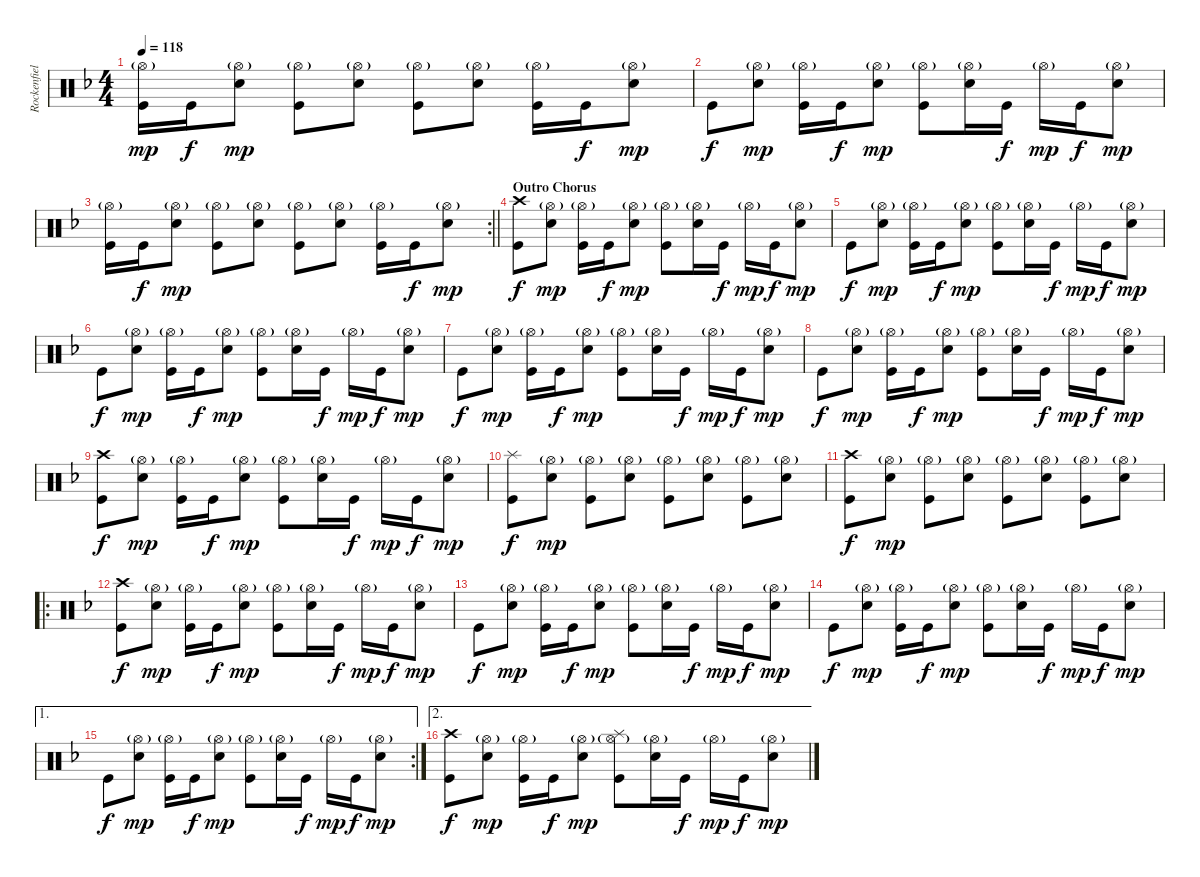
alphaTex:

\track ("Rockenfield" "Rockenfiel") {instrument percussion}
\staff {score}
\articulation defaults
\ts (4 4)
\tempo 118
\clef neutral
\ks f
("Hi-Hat (open)"{g} "Kick (hit)").16{dy mp} "Kick (hit)".16{dy f} ("Hi-Hat (open)"{g} "Snare (hit) 2").8{dy mp} ("Hi-Hat (open)"{g} "Kick (hit)").8 ("Hi-Hat (open)"{g} "Snare (hit) 2").8 ("Hi-Hat (open)"{g} "Kick (hit)").8 ("Hi-Hat (open)"{g} "Snare (hit) 2").8 ("Hi-Hat (open)"{g} "Kick (hit)").16 "Kick (hit)".16{dy f} ("Hi-Hat (open)"{g} "Snare (hit) 2").8{dy mp} |
"Kick (hit)".8{dy f} ("Hi-Hat (open)"{g} "Snare (hit) 2").8{dy mp} ("Hi-Hat (open)"{g} "Kick (hit)").16 "Kick (hit)".16{dy f} ("Hi-Hat (open)"{g} "Snare (hit) 2").8{dy mp} ("Hi-Hat (open)"{g} "Kick (hit)").8 ("Hi-Hat (open)"{g} "Snare (hit) 2").16 "Kick (hit)".16{dy f} "Hi-Hat (open)"{g}.16{dy mp} "Kick (hit)".16{dy f} ("Hi-Hat (open)"{g} "Snare (hit) 2").8{dy mp} |
\rc 2
\barLineRight lightlight
("Hi-Hat (open)"{g} "Kick (hit)").16 "Kick (hit)".16{dy f} ("Hi-Hat (open)"{g} "Snare (hit) 2").8{dy mp} ("Hi-Hat (open)"{g} "Kick (hit)").8 ("Hi-Hat (open)"{g} "Snare (hit) 2").8 ("Hi-Hat (open)"{g} "Kick (hit)").8 ("Hi-Hat (open)"{g} "Snare (hit) 2").8 ("Hi-Hat (open)"{g} "Kick (hit)").16 "Kick (hit)".16{dy f} ("Hi-Hat (open)"{g} "Snare (hit) 2").8{dy mp} |
\section ("" "Outro Chorus")
("Crash high (hit)" "Kick (hit)").8{dy f} ("Hi-Hat (open)"{g} "Snare (hit) 2").8{dy mp} ("Hi-Hat (open)"{g} "Kick (hit)").16 "Kick (hit)".16{dy f} ("Hi-Hat (open)"{g} "Snare (hit) 2").8{dy mp} ("Hi-Hat (open)"{g} "Kick (hit)").8 ("Hi-Hat (open)"{g} "Snare (hit) 2").16 "Kick (hit)".16{dy f} "Hi-Hat (open)"{g}.16{dy mp} "Kick (hit)".16{dy f} ("Hi-Hat (open)"{g} "Snare (hit) 2").8{dy mp} |
"Kick (hit)".8{dy f} ("Hi-Hat (open)"{g} "Snare (hit) 2").8{dy mp} ("Hi-Hat (open)"{g} "Kick (hit)").16 "Kick (hit)".16{dy f} ("Hi-Hat (open)"{g} "Snare (hit) 2").8{dy mp} ("Hi-Hat (open)"{g} "Kick (hit)").8 ("Hi-Hat (open)"{g} "Snare (hit) 2").16 "Kick (hit)".16{dy f} "Hi-Hat (open)"{g}.16{dy mp} "Kick (hit)".16{dy f} ("Hi-Hat (open)"{g} "Snare (hit) 2").8{dy mp} |
"Kick (hit)".8{dy f} ("Hi-Hat (open)"{g} "Snare (hit) 2").8{dy mp} ("Hi-Hat (open)"{g} "Kick (hit)").16 "Kick (hit)".16{dy f} ("Hi-Hat (open)"{g} "Snare (hit) 2").8{dy mp} ("Hi-Hat (open)"{g} "Kick (hit)").8 ("Hi-Hat (open)"{g} "Snare (hit) 2").16 "Kick (hit)".16{dy f} "Hi-Hat (open)"{g}.16{dy mp} "Kick (hit)".16{dy f} ("Hi-Hat (open)"{g} "Snare (hit) 2").8{dy mp} |
"Kick (hit)".8{dy f} ("Hi-Hat (open)"{g} "Snare (hit) 2").8{dy mp} ("Hi-Hat (open)"{g} "Kick (hit)").16 "Kick (hit)".16{dy f} ("Hi-Hat (open)"{g} "Snare (hit) 2").8{dy mp} ("Hi-Hat (open)"{g} "Kick (hit)").8 ("Hi-Hat (open)"{g} "Snare (hit) 2").16 "Kick (hit)".16{dy f} "Hi-Hat (open)"{g}.16{dy mp} "Kick (hit)".16{dy f} ("Hi-Hat (open)"{g} "Snare (hit) 2").8{dy mp} |
"Kick (hit)".8{dy f} ("Hi-Hat (open)"{g} "Snare (hit) 2").8{dy mp} ("Hi-Hat (open)"{g} "Kick (hit)").16 "Kick (hit)".16{dy f} ("Hi-Hat (open)"{g} "Snare (hit) 2").8{dy mp} ("Hi-Hat (open)"{g} "Kick (hit)").8 ("Hi-Hat (open)"{g} "Snare (hit) 2").16 "Kick (hit)".16{dy f} "Hi-Hat (open)"{g}.16{dy mp} "Kick (hit)".16{dy f} ("Hi-Hat (open)"{g} "Snare (hit) 2").8{dy mp} |
("Crash high (hit)" "Kick (hit)").8{dy f} ("Hi-Hat (open)"{g} "Snare (hit) 2").8{dy mp} ("Hi-Hat (open)"{g} "Kick (hit)").16 "Kick (hit)".16{dy f} ("Hi-Hat (open)"{g} "Snare (hit) 2").8{dy mp} ("Hi-Hat (open)"{g} "Kick (hit)").8 ("Hi-Hat (open)"{g} "Snare (hit) 2").16 "Kick (hit)".16{dy f} "Hi-Hat (open)"{g}.16{dy mp} "Kick (hit)".16{dy f} ("Hi-Hat (open)"{g} "Snare (hit) 2").8{dy mp} |
("Splash (hit)" "Kick (hit)").8{dy f} ("Hi-Hat (open)"{g} "Snare (hit) 2").8{dy mp} ("Hi-Hat (open)"{g} "Kick (hit)").8 ("Hi-Hat (open)"{g} "Snare (hit) 2").8 ("Hi-Hat (open)"{g} "Kick (hit)").8 ("Hi-Hat (open)"{g} "Snare (hit) 2").8 ("Hi-Hat (open)"{g} "Kick (hit)").8 ("Hi-Hat (open)"{g} "Snare (hit) 2").8 |
("Crash high (hit)" "Kick (hit)").8{dy f} ("Hi-Hat (open)"{g} "Snare (hit) 2").8{dy mp} ("Hi-Hat (open)"{g} "Kick (hit)").8 ("Hi-Hat (open)"{g} "Snare (hit) 2").8 ("Hi-Hat (open)"{g} "Kick (hit)").8 ("Hi-Hat (open)"{g} "Snare (hit) 2").8 ("Hi-Hat (open)"{g} "Kick (hit)").8 ("Hi-Hat (open)"{g} "Snare (hit) 2").8 |
\ro
("Crash high (hit)" "Kick (hit)").8{dy f} ("Hi-Hat (open)"{g} "Snare (hit) 2").8{dy mp} ("Hi-Hat (open)"{g} "Kick (hit)").16 "Kick (hit)".16{dy f} ("Hi-Hat (open)"{g} "Snare (hit) 2").8{dy mp} ("Hi-Hat (open)"{g} "Kick (hit)").8 ("Hi-Hat (open)"{g} "Snare (hit) 2").16 "Kick (hit)".16{dy f} "Hi-Hat (open)"{g}.16{dy mp} "Kick (hit)".16{dy f} ("Hi-Hat (open)"{g} "Snare (hit) 2").8{dy mp} |
"Kick (hit)".8{dy f} ("Hi-Hat (open)"{g} "Snare (hit) 2").8{dy mp} ("Hi-Hat (open)"{g} "Kick (hit)").16 "Kick (hit)".16{dy f} ("Hi-Hat (open)"{g} "Snare (hit) 2").8{dy mp} ("Hi-Hat (open)"{g} "Kick (hit)").8 ("Hi-Hat (open)"{g} "Snare (hit) 2").16 "Kick (hit)".16{dy f} "Hi-Hat (open)"{g}.16{dy mp} "Kick (hit)".16{dy f} ("Hi-Hat (open)"{g} "Snare (hit) 2").8{dy mp} |
"Kick (hit)".8{dy f} ("Hi-Hat (open)"{g} "Snare (hit) 2").8{dy mp} ("Hi-Hat (open)"{g} "Kick (hit)").16 "Kick (hit)".16{dy f} ("Hi-Hat (open)"{g} "Snare (hit) 2").8{dy mp} ("Hi-Hat (open)"{g} "Kick (hit)").8 ("Hi-Hat (open)"{g} "Snare (hit) 2").16 "Kick (hit)".16{dy f} "Hi-Hat (open)"{g}.16{dy mp} "Kick (hit)".16{dy f} ("Hi-Hat (open)"{g} "Snare (hit) 2").8{dy mp} |
\ae 1
\rc 2 "Kick (hit)".8{dy f}
("Hi-Hat (open)"{g} "Snare (hit) 2").8{dy mp} ("Hi-Hat (open)"{g} "Kick (hit)").16 "Kick (hit)".16{dy f} ("Hi-Hat (open)"{g} "Snare (hit) 2").8{dy mp} ("Hi-Hat (open)"{g} "Kick (hit)").8 ("Hi-Hat (open)"{g} "Snare (hit) 2").16 "Kick (hit)".16{dy f} "Hi-Hat (open)"{g}.16{dy mp} "Kick (hit)".16{dy f} ("Hi-Hat (open)"{g} "Snare (hit) 2").8{dy mp} |
\ae 2
("Crash high (hit)" "Kick (hit)").8{dy f} ("Hi-Hat (open)"{g} "Snare (hit) 2").8{dy mp} ("Hi-Hat (open)"{g} "Kick (hit)").16 "Kick (hit)".16{dy f} ("Hi-Hat (open)"{g} "Snare (hit) 2").8{dy mp} ("Splash (hit)" "Hi-Hat (open)"{g} "Kick (hit)").8 ("Hi-Hat (open)"{g} "Snare (hit) 2").16 "Kick (hit)".16{dy f} "Hi-Hat (open)"{g}.16{dy mp} "Kick (hit)".16{dy f} ("Hi-Hat (open)"{g} "Snare (hit) 2").8{dy mp}
